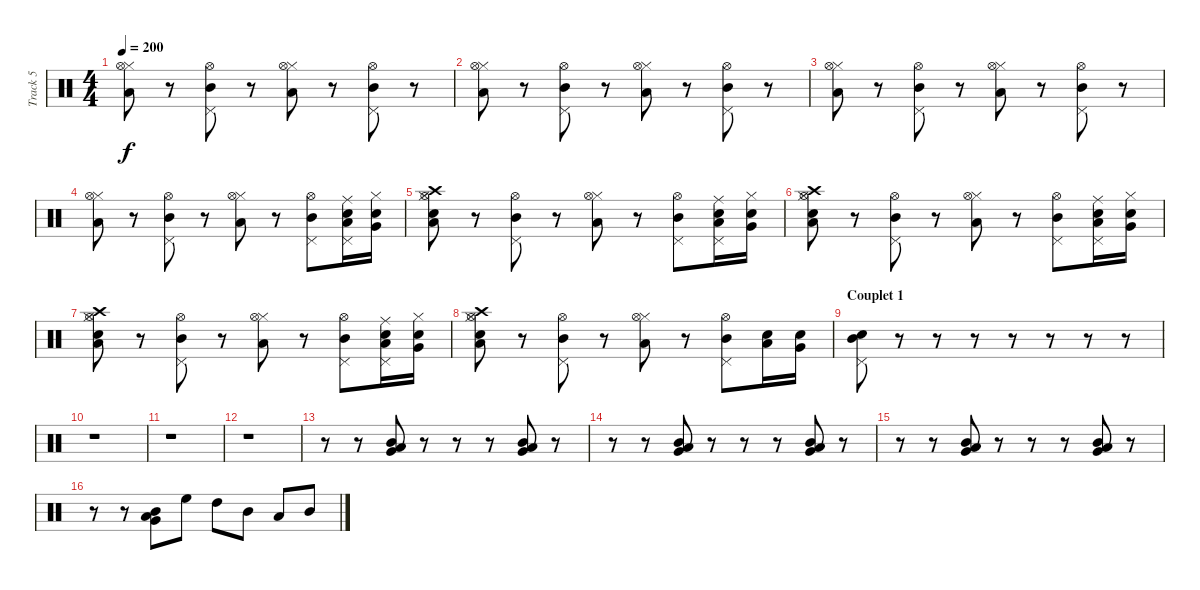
\track ("Track 5" "Track 5") {instrument percussion}
\staff {score}
\articulation defaults
\ts (4 4)
\tempo 200
\clef neutral
\ks c
("Low Tom (hit)" "Hi-Hat (closed)" "Hi-Hat (open)").8{dy f} r.8 ("Mid Tom (hit)" "Pedal Hi-Hat (hit)" "Hi-Hat (open)").8 r.8 ("Low Tom (hit)" "Hi-Hat (closed)" "Hi-Hat (open)").8 r.8 ("Mid Tom (hit)" "Pedal Hi-Hat (hit)" "Hi-Hat (open)").8 r.8 |
("Low Tom (hit)" "Hi-Hat (closed)" "Hi-Hat (open)").8 r.8 ("Mid Tom (hit)" "Pedal Hi-Hat (hit)" "Hi-Hat (open)").8 r.8 ("Low Tom (hit)" "Hi-Hat (closed)" "Hi-Hat (open)").8 r.8 ("Mid Tom (hit)" "Pedal Hi-Hat (hit)" "Hi-Hat (open)").8 r.8 |
("Low Tom (hit)" "Hi-Hat (closed)" "Hi-Hat (open)").8 r.8 ("Mid Tom (hit)" "Pedal Hi-Hat (hit)" "Hi-Hat (open)").8 r.8 ("Low Tom (hit)" "Hi-Hat (closed)" "Hi-Hat (open)").8 r.8 ("Mid Tom (hit)" "Pedal Hi-Hat (hit)" "Hi-Hat (open)").8 r.8 |
("Low Tom (hit)" "Hi-Hat (closed)" "Hi-Hat (open)").8 r.8 ("Mid Tom (hit)" "Pedal Hi-Hat (hit)" "Hi-Hat (open)").8 r.8 ("Low Tom (hit)" "Hi-Hat (closed)" "Hi-Hat (open)").8 r.8 ("Mid Tom (hit)" "Pedal Hi-Hat (hit)" "Hi-Hat (open)").8 ("Low Tom (hit)" "Pedal Hi-Hat (hit)" "Ride (middle)" "Electric Snare (hit)").16 ("Very Low Tom (hit)" "Hi-Hat (closed)" "Snare (hit) 2").16 |
("Low Tom (hit)" "Hi-Hat (closed)" "Hi-Hat (open)" "Crash high (hit)" "Electric Snare (hit)").8 r.8 ("Mid Tom (hit)" "Pedal Hi-Hat (hit)" "Hi-Hat (open)").8 r.8 ("Low Tom (hit)" "Hi-Hat (closed)" "Hi-Hat (open)").8 r.8 ("Mid Tom (hit)" "Pedal Hi-Hat (hit)" "Hi-Hat (open)").8 ("Low Tom (hit)" "Pedal Hi-Hat (hit)" "Ride (middle)" "Electric Snare (hit)").16 ("Very Low Tom (hit)" "Hi-Hat (closed)" "Snare (hit) 2").16 |
("Low Tom (hit)" "Hi-Hat (closed)" "Hi-Hat (open)" "Crash high (hit)" "Electric Snare (hit)").8 r.8 ("Mid Tom (hit)" "Pedal Hi-Hat (hit)" "Hi-Hat (open)").8 r.8 ("Low Tom (hit)" "Hi-Hat (closed)" "Hi-Hat (open)").8 r.8 ("Mid Tom (hit)" "Pedal Hi-Hat (hit)" "Hi-Hat (open)").8 ("Low Tom (hit)" "Pedal Hi-Hat (hit)" "Ride (middle)" "Electric Snare (hit)").16 ("Very Low Tom (hit)" "Hi-Hat (closed)" "Snare (hit) 2").16 |
("Low Tom (hit)" "Hi-Hat (closed)" "Hi-Hat (open)" "Crash high (hit)" "Electric Snare (hit)").8 r.8 ("Mid Tom (hit)" "Pedal Hi-Hat (hit)" "Hi-Hat (open)").8 r.8 ("Low Tom (hit)" "Hi-Hat (closed)" "Hi-Hat (open)").8 r.8 ("Mid Tom (hit)" "Pedal Hi-Hat (hit)" "Hi-Hat (open)").8 ("Low Tom (hit)" "Pedal Hi-Hat (hit)" "Ride (middle)" "Electric Snare (hit)").16 ("Very Low Tom (hit)" "Hi-Hat (closed)" "Snare (hit) 2").16 |
("Low Tom (hit)" "Hi-Hat (closed)" "Hi-Hat (open)" "Crash high (hit)" "Electric Snare (hit)").8 r.8 ("Mid Tom (hit)" "Pedal Hi-Hat (hit)" "Hi-Hat (open)").8 r.8 ("Low Tom (hit)" "Hi-Hat (closed)" "Hi-Hat (open)").8 r.8 ("Mid Tom (hit)" "Pedal Hi-Hat (hit)" "Hi-Hat (open)").8 ("Low Tom (hit)" "Electric Snare (hit)").16 ("Very Low Tom (hit)" "Snare (hit) 2").16 |
\section ("" "Couplet 1")
("Mid Tom (hit)" "Pedal Hi-Hat (hit)" "Electric Snare (hit)").8 r.8 r.8 r.8 r.8 r.8 r.8 r.8 |
r.1 |
r.1 |
r.1 |
r.8 r.8 ("Low Tom (hit)" "Very Low Tom (hit)" "Mid Tom (hit)").8 r.8 r.8 r.8 ("Mid Tom (hit)" "Low Tom (hit)" "Very Low Tom (hit)").8 r.8 |
r.8 r.8 ("Low Tom (hit)" "Very Low Tom (hit)" "Mid Tom (hit)").8 r.8 r.8 r.8 ("Mid Tom (hit)" "Low Tom (hit)" "Very Low Tom (hit)").8 r.8 |
r.8 r.8 ("Low Tom (hit)" "Very Low Tom (hit)" "Mid Tom (hit)").8 r.8 r.8 r.8 ("Mid Tom (hit)" "Low Tom (hit)" "Very Low Tom (hit)").8 r.8 |
r.8 r.8 ("Mid Tom (hit)" "Low Tom (hit)" "Very Low Tom (hit)").8 "High Floor Tom (hit)".8 "High Tom (hit)".8 "Mid Tom (hit)".8 "Low Tom (hit)".8 "Mid Tom (hit)".8
